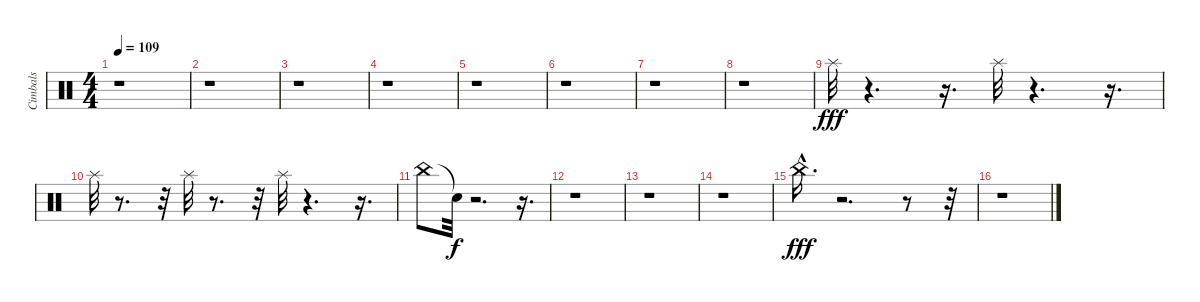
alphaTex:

\track ("Cimbals" "Cimbals") {instrument percussion}
\staff {score}
\articulation defaults
\ts (4 4)
\tempo 109
\clef neutral
\ks c
r.1{dy fff} |
r.1 |
r.1 |
r.1 |
r.1 |
r.1 |
r.1 |
r.1 |
"Splash (hit)".32 r.4{d} r.16{d} "Splash (hit)".32 r.4{d} r.16{d} |
"Splash (hit)".32 r.8{d} r.32 "Splash (hit)".32 r.8{d} r.32 "Splash (hit)".32 r.4{d} r.16{d} |
"China (choke)".8 "Snare (hit)"{t}.32{dy f} r.2{d} r.16{d} |
r.1 |
r.1 |
r.1 |
"China (choke)"{hac}.16{d dy fff} r.2{d} r.8 r.32 |
r.1
